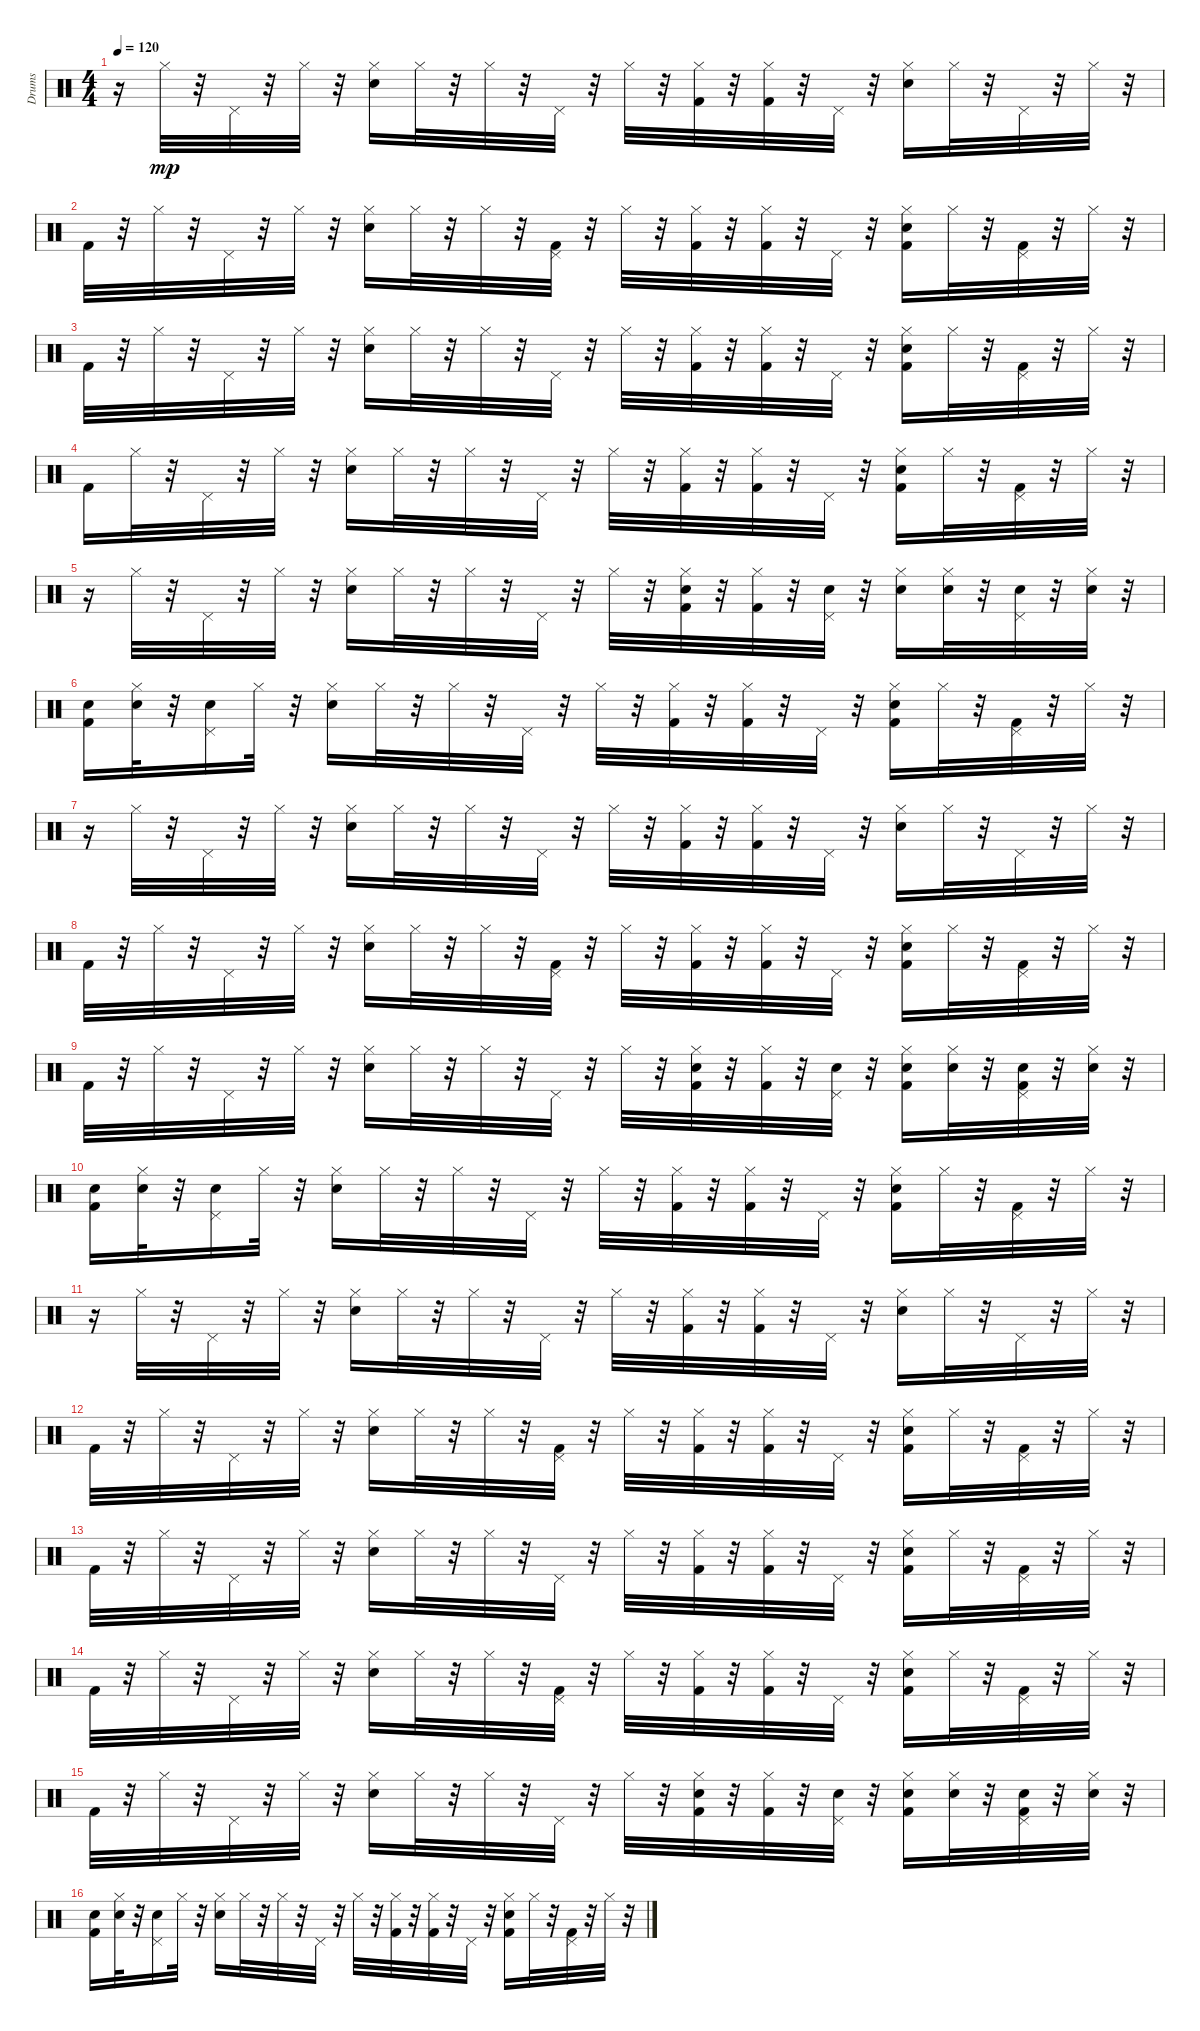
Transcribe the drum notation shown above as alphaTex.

\track ("Drums" "Drums") {instrument percussion}
\staff {score}
\articulation defaults
\ts (4 4)
\tempo 120
\clef neutral
\ks c
r.16{dy mp} "Hi-Hat (closed)".32 r.32 "Pedal Hi-Hat (hit)".32 r.32 "Hi-Hat (closed)".32 r.32 ("Hi-Hat (closed)" "Snare (hit) 2").16 "Hi-Hat (closed)".32 r.32 "Hi-Hat (closed)".32 r.32 "Pedal Hi-Hat (hit)".32 r.32 "Hi-Hat (closed)".32 r.32 ("Hi-Hat (closed)" "Kick (hit) 2").32 r.32 ("Hi-Hat (closed)" "Kick (hit) 2").32 r.32 "Pedal Hi-Hat (hit)".32 r.32 ("Hi-Hat (closed)" "Snare (hit) 2").16 "Hi-Hat (closed)".32 r.32 "Pedal Hi-Hat (hit)".32 r.32 "Hi-Hat (closed)".32 r.32 |
"Kick (hit) 2".32 r.32 "Hi-Hat (closed)".32 r.32 "Pedal Hi-Hat (hit)".32 r.32 "Hi-Hat (closed)".32 r.32 ("Hi-Hat (closed)" "Snare (hit) 2").16 "Hi-Hat (closed)".32 r.32 "Hi-Hat (closed)".32 r.32 ("Pedal Hi-Hat (hit)" "Kick (hit) 2").32 r.32 "Hi-Hat (closed)".32 r.32 ("Hi-Hat (closed)" "Kick (hit) 2").32 r.32 ("Hi-Hat (closed)" "Kick (hit) 2").32 r.32 "Pedal Hi-Hat (hit)".32 r.32 ("Hi-Hat (closed)" "Kick (hit) 2" "Snare (hit) 2").16 "Hi-Hat (closed)".32 r.32 ("Kick (hit) 2" "Pedal Hi-Hat (hit)").32 r.32 "Hi-Hat (closed)".32 r.32 |
"Kick (hit) 2".32 r.32 "Hi-Hat (closed)".32 r.32 "Pedal Hi-Hat (hit)".32 r.32 "Hi-Hat (closed)".32 r.32 ("Hi-Hat (closed)" "Snare (hit) 2").16 "Hi-Hat (closed)".32 r.32 "Hi-Hat (closed)".32 r.32 "Pedal Hi-Hat (hit)".32 r.32 "Hi-Hat (closed)".32 r.32 ("Hi-Hat (closed)" "Kick (hit) 2").32 r.32 ("Hi-Hat (closed)" "Kick (hit) 2").32 r.32 "Pedal Hi-Hat (hit)".32 r.32 ("Hi-Hat (closed)" "Kick (hit) 2" "Snare (hit) 2").16 "Hi-Hat (closed)".32 r.32 ("Pedal Hi-Hat (hit)" "Kick (hit) 2").32 r.32 "Hi-Hat (closed)".32 r.32 |
"Kick (hit) 2".16 "Hi-Hat (closed)".32 r.32 "Pedal Hi-Hat (hit)".32 r.32 "Hi-Hat (closed)".32 r.32 ("Hi-Hat (closed)" "Snare (hit) 2").16 "Hi-Hat (closed)".32 r.32 "Hi-Hat (closed)".32 r.32 "Pedal Hi-Hat (hit)".32 r.32 "Hi-Hat (closed)".32 r.32 ("Hi-Hat (closed)" "Kick (hit) 2").32 r.32 ("Hi-Hat (closed)" "Kick (hit) 2").32 r.32 "Pedal Hi-Hat (hit)".32 r.32 ("Hi-Hat (closed)" "Snare (hit) 2" "Kick (hit) 2").16 "Hi-Hat (closed)".32 r.32 ("Pedal Hi-Hat (hit)" "Kick (hit) 2").32 r.32 "Hi-Hat (closed)".32 r.32 |
r.16 "Hi-Hat (closed)".32 r.32 "Pedal Hi-Hat (hit)".32 r.32 "Hi-Hat (closed)".32 r.32 ("Hi-Hat (closed)" "Snare (hit) 2").16 "Hi-Hat (closed)".32 r.32 "Hi-Hat (closed)".32 r.32 "Pedal Hi-Hat (hit)".32 r.32 "Hi-Hat (closed)".32 r.32 ("Hi-Hat (closed)" "Kick (hit) 2" "Hand Clap (hit)").32 r.32 ("Hi-Hat (closed)" "Kick (hit) 2").32 r.32 ("Pedal Hi-Hat (hit)" "Hand Clap (hit)").32 r.32 ("Hi-Hat (closed)" "Snare (hit) 2").16 ("Hi-Hat (closed)" "Hand Clap (hit)").32 r.32 ("Pedal Hi-Hat (hit)" "Hand Clap (hit)").32 r.32 ("Hi-Hat (closed)" "Hand Clap (hit)").32 r.32 |
("Kick (hit) 2" "Hand Clap (hit)").16 ("Hi-Hat (closed)" "Hand Clap (hit)").32 r.32 ("Pedal Hi-Hat (hit)" "Hand Clap (hit)").16 "Hi-Hat (closed)".32 r.32 ("Hi-Hat (closed)" "Snare (hit) 2").16 "Hi-Hat (closed)".32 r.32 "Hi-Hat (closed)".32 r.32 "Pedal Hi-Hat (hit)".32 r.32 "Hi-Hat (closed)".32 r.32 ("Hi-Hat (closed)" "Kick (hit) 2").32 r.32 ("Hi-Hat (closed)" "Kick (hit) 2").32 r.32 "Pedal Hi-Hat (hit)".32 r.32 ("Hi-Hat (closed)" "Snare (hit) 2" "Kick (hit) 2").16 "Hi-Hat (closed)".32 r.32 ("Pedal Hi-Hat (hit)" "Kick (hit) 2").32 r.32 "Hi-Hat (closed)".32 r.32 |
r.16 "Hi-Hat (closed)".32 r.32 "Pedal Hi-Hat (hit)".32 r.32 "Hi-Hat (closed)".32 r.32 ("Hi-Hat (closed)" "Snare (hit) 2").16 "Hi-Hat (closed)".32 r.32 "Hi-Hat (closed)".32 r.32 "Pedal Hi-Hat (hit)".32 r.32 "Hi-Hat (closed)".32 r.32 ("Hi-Hat (closed)" "Kick (hit) 2").32 r.32 ("Hi-Hat (closed)" "Kick (hit) 2").32 r.32 "Pedal Hi-Hat (hit)".32 r.32 ("Hi-Hat (closed)" "Snare (hit) 2").16 "Hi-Hat (closed)".32 r.32 "Pedal Hi-Hat (hit)".32 r.32 "Hi-Hat (closed)".32 r.32 |
"Kick (hit) 2".32 r.32 "Hi-Hat (closed)".32 r.32 "Pedal Hi-Hat (hit)".32 r.32 "Hi-Hat (closed)".32 r.32 ("Snare (hit) 2" "Hi-Hat (closed)").16 "Hi-Hat (closed)".32 r.32 "Hi-Hat (closed)".32 r.32 ("Kick (hit) 2" "Pedal Hi-Hat (hit)").32 r.32 "Hi-Hat (closed)".32 r.32 ("Kick (hit) 2" "Hi-Hat (closed)").32 r.32 ("Kick (hit) 2" "Hi-Hat (closed)").32 r.32 "Pedal Hi-Hat (hit)".32 r.32 ("Kick (hit) 2" "Snare (hit) 2" "Hi-Hat (closed)").16 "Hi-Hat (closed)".32 r.32 ("Kick (hit) 2" "Pedal Hi-Hat (hit)").32 r.32 "Hi-Hat (closed)".32 r.32 |
"Kick (hit) 2".32 r.32 "Hi-Hat (closed)".32 r.32 "Pedal Hi-Hat (hit)".32 r.32 "Hi-Hat (closed)".32 r.32 ("Snare (hit) 2" "Hi-Hat (closed)").16 "Hi-Hat (closed)".32 r.32 "Hi-Hat (closed)".32 r.32 "Pedal Hi-Hat (hit)".32 r.32 "Hi-Hat (closed)".32 r.32 ("Kick (hit) 2" "Hand Clap (hit)" "Hi-Hat (closed)").32 r.32 ("Kick (hit) 2" "Hi-Hat (closed)").32 r.32 ("Hand Clap (hit)" "Pedal Hi-Hat (hit)").32 r.32 ("Kick (hit) 2" "Snare (hit) 2" "Hi-Hat (closed)").16 ("Hand Clap (hit)" "Hi-Hat (closed)").32 r.32 ("Kick (hit) 2" "Hand Clap (hit)" "Pedal Hi-Hat (hit)").32 r.32 ("Hand Clap (hit)" "Hi-Hat (closed)").32 r.32 |
("Kick (hit) 2" "Hand Clap (hit)").16 ("Hand Clap (hit)" "Hi-Hat (closed)").32 r.32 ("Hand Clap (hit)" "Pedal Hi-Hat (hit)").16 "Hi-Hat (closed)".32 r.32 ("Snare (hit) 2" "Hi-Hat (closed)").16 "Hi-Hat (closed)".32 r.32 "Hi-Hat (closed)".32 r.32 "Pedal Hi-Hat (hit)".32 r.32 "Hi-Hat (closed)".32 r.32 ("Kick (hit) 2" "Hi-Hat (closed)").32 r.32 ("Kick (hit) 2" "Hi-Hat (closed)").32 r.32 "Pedal Hi-Hat (hit)".32 r.32 ("Snare (hit) 2" "Kick (hit) 2" "Hi-Hat (closed)").16 "Hi-Hat (closed)".32 r.32 ("Kick (hit) 2" "Pedal Hi-Hat (hit)").32 r.32 "Hi-Hat (closed)".32 r.32 |
r.16 "Hi-Hat (closed)".32 r.32 "Pedal Hi-Hat (hit)".32 r.32 "Hi-Hat (closed)".32 r.32 ("Snare (hit) 2" "Hi-Hat (closed)").16 "Hi-Hat (closed)".32 r.32 "Hi-Hat (closed)".32 r.32 "Pedal Hi-Hat (hit)".32 r.32 "Hi-Hat (closed)".32 r.32 ("Kick (hit) 2" "Hi-Hat (closed)").32 r.32 ("Kick (hit) 2" "Hi-Hat (closed)").32 r.32 "Pedal Hi-Hat (hit)".32 r.32 ("Snare (hit) 2" "Hi-Hat (closed)").16 "Hi-Hat (closed)".32 r.32 "Pedal Hi-Hat (hit)".32 r.32 "Hi-Hat (closed)".32 r.32 |
"Kick (hit) 2".32 r.32 "Hi-Hat (closed)".32 r.32 "Pedal Hi-Hat (hit)".32 r.32 "Hi-Hat (closed)".32 r.32 ("Hi-Hat (closed)" "Snare (hit) 2").16 "Hi-Hat (closed)".32 r.32 "Hi-Hat (closed)".32 r.32 ("Pedal Hi-Hat (hit)" "Kick (hit) 2").32 r.32 "Hi-Hat (closed)".32 r.32 ("Hi-Hat (closed)" "Kick (hit) 2").32 r.32 ("Hi-Hat (closed)" "Kick (hit) 2").32 r.32 "Pedal Hi-Hat (hit)".32 r.32 ("Hi-Hat (closed)" "Kick (hit) 2" "Snare (hit) 2").16 "Hi-Hat (closed)".32 r.32 ("Kick (hit) 2" "Pedal Hi-Hat (hit)").32 r.32 "Hi-Hat (closed)".32 r.32 |
"Kick (hit) 2".32 r.32 "Hi-Hat (closed)".32 r.32 "Pedal Hi-Hat (hit)".32 r.32 "Hi-Hat (closed)".32 r.32 ("Snare (hit) 2" "Hi-Hat (closed)").16 "Hi-Hat (closed)".32 r.32 "Hi-Hat (closed)".32 r.32 "Pedal Hi-Hat (hit)".32 r.32 "Hi-Hat (closed)".32 r.32 ("Kick (hit) 2" "Hi-Hat (closed)").32 r.32 ("Kick (hit) 2" "Hi-Hat (closed)").32 r.32 "Pedal Hi-Hat (hit)".32 r.32 ("Kick (hit) 2" "Snare (hit) 2" "Hi-Hat (closed)").16 "Hi-Hat (closed)".32 r.32 ("Kick (hit) 2" "Pedal Hi-Hat (hit)").32 r.32 "Hi-Hat (closed)".32 r.32 |
"Kick (hit) 2".32 r.32 "Hi-Hat (closed)".32 r.32 "Pedal Hi-Hat (hit)".32 r.32 "Hi-Hat (closed)".32 r.32 ("Hi-Hat (closed)" "Snare (hit) 2").16 "Hi-Hat (closed)".32 r.32 "Hi-Hat (closed)".32 r.32 ("Pedal Hi-Hat (hit)" "Kick (hit) 2").32 r.32 "Hi-Hat (closed)".32 r.32 ("Hi-Hat (closed)" "Kick (hit) 2").32 r.32 ("Hi-Hat (closed)" "Kick (hit) 2").32 r.32 "Pedal Hi-Hat (hit)".32 r.32 ("Hi-Hat (closed)" "Kick (hit) 2" "Snare (hit) 2").16 "Hi-Hat (closed)".32 r.32 ("Kick (hit) 2" "Pedal Hi-Hat (hit)").32 r.32 "Hi-Hat (closed)".32 r.32 |
"Kick (hit) 2".32 r.32 "Hi-Hat (closed)".32 r.32 "Pedal Hi-Hat (hit)".32 r.32 "Hi-Hat (closed)".32 r.32 ("Snare (hit) 2" "Hi-Hat (closed)").16 "Hi-Hat (closed)".32 r.32 "Hi-Hat (closed)".32 r.32 "Pedal Hi-Hat (hit)".32 r.32 "Hi-Hat (closed)".32 r.32 ("Kick (hit) 2" "Hand Clap (hit)" "Hi-Hat (closed)").32 r.32 ("Kick (hit) 2" "Hi-Hat (closed)").32 r.32 ("Hand Clap (hit)" "Pedal Hi-Hat (hit)").32 r.32 ("Kick (hit) 2" "Snare (hit) 2" "Hi-Hat (closed)").16 ("Hand Clap (hit)" "Hi-Hat (closed)").32 r.32 ("Kick (hit) 2" "Hand Clap (hit)" "Pedal Hi-Hat (hit)").32 r.32 ("Hand Clap (hit)" "Hi-Hat (closed)").32 r.32 |
("Kick (hit) 2" "Hand Clap (hit)").16 ("Hi-Hat (closed)" "Hand Clap (hit)").32 r.32 ("Pedal Hi-Hat (hit)" "Hand Clap (hit)").16 "Hi-Hat (closed)".32 r.32 ("Hi-Hat (closed)" "Snare (hit) 2").16 "Hi-Hat (closed)".32 r.32 "Hi-Hat (closed)".32 r.32 "Pedal Hi-Hat (hit)".32 r.32 "Hi-Hat (closed)".32 r.32 ("Hi-Hat (closed)" "Kick (hit) 2").32 r.32 ("Hi-Hat (closed)" "Kick (hit) 2").32 r.32 "Pedal Hi-Hat (hit)".32 r.32 ("Hi-Hat (closed)" "Snare (hit) 2" "Kick (hit) 2").16 "Hi-Hat (closed)".32 r.32 ("Pedal Hi-Hat (hit)" "Kick (hit) 2").32 r.32 "Hi-Hat (closed)".32 r.32
